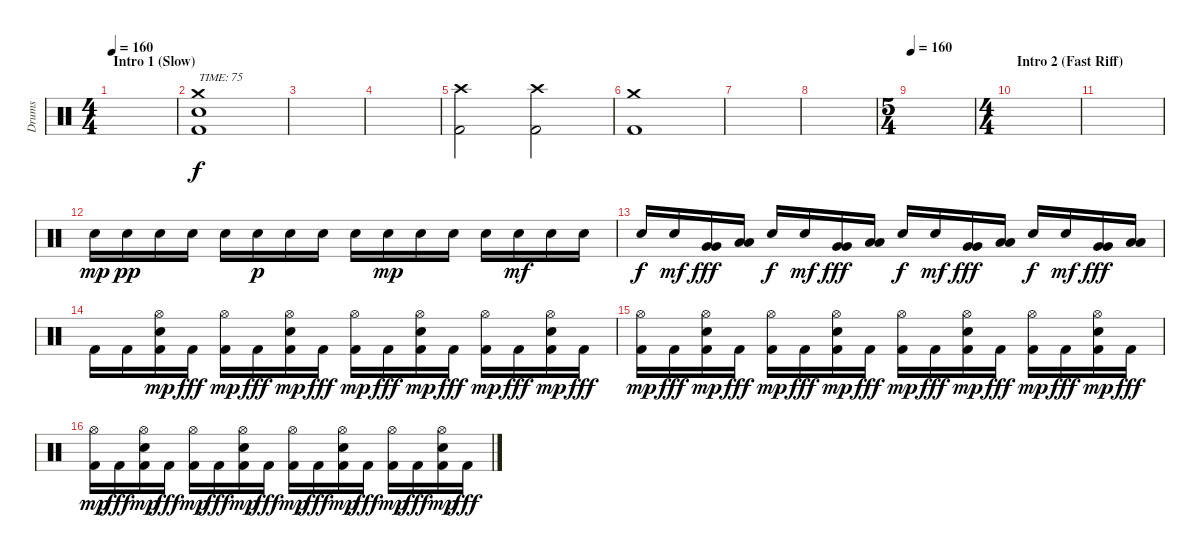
\track ("Drums" "Drums") {instrument percussion}
\staff {score}
\articulation defaults
\ts (4 4)
\section ("" "Intro 1 (Slow)")
\tempo 160
\tempo 75
\tempo 160
\clef neutral
\ks c
|
("Kick (hit) 2" "Snare (hit) 2" "Crash medium (hit)").1{txt "TIME: 75 "} |
|
|
("Kick (hit) 2" "Crash high (hit)").2 ("Kick (hit) 2" "Crash high (hit)").2 |
("Kick (hit) 2" "Crash medium (hit)").1 |
|
|
\ts (5 4)
\tempo 160
|
\ts (4 4)
\section ("" "Intro 2 (Fast Riff)")
|
|
"Snare (hit) 2".16{dy mp} "Snare (hit) 2".16{dy pp} "Snare (hit) 2".16 "Snare (hit) 2".16 "Snare (hit) 2".16 "Snare (hit) 2".16{dy p} "Snare (hit) 2".16 "Snare (hit) 2".16 "Snare (hit) 2".16 "Snare (hit) 2".16{dy mp} "Snare (hit) 2".16 "Snare (hit) 2".16 "Snare (hit) 2".16 "Snare (hit) 2".16{dy mf} "Snare (hit) 2".16 "Snare (hit) 2".16 |
"Snare (hit) 2".16{dy f} "Snare (hit) 2".16{dy mf} ("Very Low Tom (hit)" "Very Low Tom (hit)").16{dy fff} ("Low Floor Tom (hit)" "Low Floor Tom (hit)").16 "Snare (hit) 2".16{dy f} "Snare (hit) 2".16{dy mf} ("Very Low Tom (hit)" "Very Low Tom (hit)").16{dy fff} ("Low Floor Tom (hit)" "Low Floor Tom (hit)").16 "Snare (hit) 2".16{dy f} "Snare (hit) 2".16{dy mf} ("Very Low Tom (hit)" "Very Low Tom (hit)").16{dy fff} ("Low Floor Tom (hit)" "Low Floor Tom (hit)").16 "Snare (hit) 2".16{dy f} "Snare (hit) 2".16{dy mf} ("Very Low Tom (hit)" "Very Low Tom (hit)").16{dy fff} ("Low Floor Tom (hit)" "Low Floor Tom (hit)").16 |
"Kick (hit) 2".16 "Kick (hit) 2".16 ("Kick (hit) 2" "Hi-Hat (open)" "Snare (hit) 2").16{dy mp} "Kick (hit) 2".16{dy fff} ("Kick (hit) 2" "Hi-Hat (open)").16{dy mp} "Kick (hit) 2".16{dy fff} ("Kick (hit) 2" "Hi-Hat (open)" "Snare (hit) 2").16{dy mp} "Kick (hit) 2".16{dy fff} ("Kick (hit) 2" "Hi-Hat (open)").16{dy mp} "Kick (hit) 2".16{dy fff} ("Kick (hit) 2" "Hi-Hat (open)" "Snare (hit) 2").16{dy mp} "Kick (hit) 2".16{dy fff} ("Kick (hit) 2" "Hi-Hat (open)").16{dy mp} "Kick (hit) 2".16{dy fff} ("Kick (hit) 2" "Hi-Hat (open)" "Snare (hit) 2").16{dy mp} "Kick (hit) 2".16{dy fff} |
("Kick (hit) 2" "Hi-Hat (open)").16{dy mp} "Kick (hit) 2".16{dy fff} ("Kick (hit) 2" "Hi-Hat (open)" "Snare (hit) 2").16{dy mp} "Kick (hit) 2".16{dy fff} ("Kick (hit) 2" "Hi-Hat (open)").16{dy mp} "Kick (hit) 2".16{dy fff} ("Kick (hit) 2" "Hi-Hat (open)" "Snare (hit) 2").16{dy mp} "Kick (hit) 2".16{dy fff} ("Kick (hit) 2" "Hi-Hat (open)").16{dy mp} "Kick (hit) 2".16{dy fff} ("Kick (hit) 2" "Hi-Hat (open)" "Snare (hit) 2").16{dy mp} "Kick (hit) 2".16{dy fff} ("Kick (hit) 2" "Hi-Hat (open)").16{dy mp} "Kick (hit) 2".16{dy fff} ("Kick (hit) 2" "Hi-Hat (open)" "Snare (hit) 2").16{dy mp} "Kick (hit) 2".16{dy fff} |
("Kick (hit) 2" "Hi-Hat (open)").16{dy mp} "Kick (hit) 2".16{dy fff} ("Kick (hit) 2" "Hi-Hat (open)" "Snare (hit) 2").16{dy mp} "Kick (hit) 2".16{dy fff} ("Kick (hit) 2" "Hi-Hat (open)").16{dy mp} "Kick (hit) 2".16{dy fff} ("Kick (hit) 2" "Hi-Hat (open)" "Snare (hit) 2").16{dy mp} "Kick (hit) 2".16{dy fff} ("Kick (hit) 2" "Hi-Hat (open)").16{dy mp} "Kick (hit) 2".16{dy fff} ("Kick (hit) 2" "Hi-Hat (open)" "Snare (hit) 2").16{dy mp} "Kick (hit) 2".16{dy fff} ("Kick (hit) 2" "Hi-Hat (open)").16{dy mp} "Kick (hit) 2".16{dy fff} ("Kick (hit) 2" "Hi-Hat (open)" "Snare (hit) 2").16{dy mp} "Kick (hit) 2".16{dy fff}
